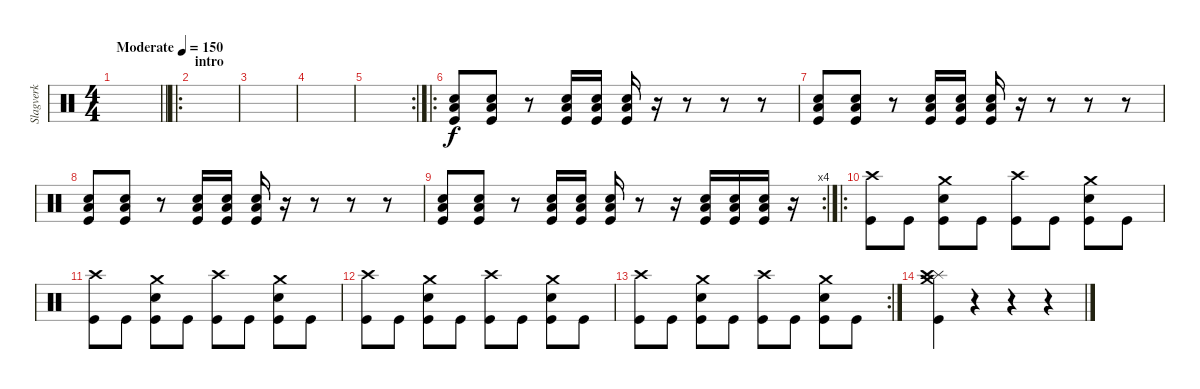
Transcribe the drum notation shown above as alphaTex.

\track ("Slagverk" "Slagverk") {instrument percussion}
\staff {score}
\articulation defaults
\ts (4 4)
\tempo (150 "Moderate")
\clef neutral
\barLineRight lightlight
\ks c
|
\ro
\section ("" "intro")
|
|
|
\rc 2
|
\ro
("Kick (hit)" "Snare (hit) 2" "Low Floor Tom (hit)").8 ("Kick (hit)" "Snare (hit) 2" "Low Floor Tom (hit)").8 r.8 ("Kick (hit)" "Snare (hit) 2" "Low Floor Tom (hit)").16 ("Kick (hit)" "Snare (hit) 2" "Low Floor Tom (hit)").16 ("Kick (hit)" "Snare (hit) 2" "Low Floor Tom (hit)").16 r.16 r.8 r.8 r.8 |
("Kick (hit)" "Snare (hit) 2" "Low Floor Tom (hit)").8 ("Kick (hit)" "Snare (hit) 2" "Low Floor Tom (hit)").8 r.8 ("Kick (hit)" "Snare (hit) 2" "Low Floor Tom (hit)").16 ("Kick (hit)" "Snare (hit) 2" "Low Floor Tom (hit)").16 ("Kick (hit)" "Snare (hit) 2" "Low Floor Tom (hit)").16 r.16 r.8 r.8 r.8 |
("Kick (hit)" "Snare (hit) 2" "Low Floor Tom (hit)").8 ("Kick (hit)" "Snare (hit) 2" "Low Floor Tom (hit)").8 r.8 ("Kick (hit)" "Snare (hit) 2" "Low Floor Tom (hit)").16 ("Kick (hit)" "Snare (hit) 2" "Low Floor Tom (hit)").16 ("Kick (hit)" "Snare (hit) 2" "Low Floor Tom (hit)").16 r.16 r.8 r.8 r.8 |
\rc 4
("Kick (hit)" "Snare (hit) 2" "Low Floor Tom (hit)").8 ("Kick (hit)" "Snare (hit) 2" "Low Floor Tom (hit)").8 r.8 ("Kick (hit)" "Snare (hit) 2" "Low Floor Tom (hit)").16 ("Kick (hit)" "Snare (hit) 2" "Low Floor Tom (hit)").16 ("Kick (hit)" "Snare (hit) 2" "Low Floor Tom (hit)").16 r.8 r.16 ("Kick (hit)" "Snare (hit) 2" "Low Floor Tom (hit)").16 ("Kick (hit)" "Snare (hit) 2" "Low Floor Tom (hit)").16 ("Kick (hit)" "Snare (hit) 2" "Low Floor Tom (hit)").16 r.16 |
\ro
("Kick (hit)" "Crash high (hit)").8 "Kick (hit)".8 ("Kick (hit)" "Snare (hit) 2" "Crash medium (hit)").8 "Kick (hit)".8 ("Kick (hit)" "Crash high (hit)").8 "Kick (hit)".8 ("Kick (hit)" "Snare (hit) 2" "Crash medium (hit)").8 "Kick (hit)".8 |
("Kick (hit)" "Crash high (hit)").8 "Kick (hit)".8 ("Kick (hit)" "Snare (hit) 2" "Crash medium (hit)").8 "Kick (hit)".8 ("Kick (hit)" "Crash high (hit)").8 "Kick (hit)".8 ("Kick (hit)" "Snare (hit) 2" "Crash medium (hit)").8 "Kick (hit)".8 |
("Kick (hit)" "Crash high (hit)").8 "Kick (hit)".8 ("Kick (hit)" "Snare (hit) 2" "Crash medium (hit)").8 "Kick (hit)".8 ("Kick (hit)" "Crash high (hit)").8 "Kick (hit)".8 ("Kick (hit)" "Snare (hit) 2" "Crash medium (hit)").8 "Kick (hit)".8 |
\rc 2
("Kick (hit)" "Crash high (hit)").8 "Kick (hit)".8 ("Kick (hit)" "Snare (hit) 2" "Crash medium (hit)").8 "Kick (hit)".8 ("Kick (hit)" "Crash high (hit)").8 "Kick (hit)".8 ("Kick (hit)" "Snare (hit) 2" "Crash medium (hit)").8 "Kick (hit)".8 |
("Kick (hit)" "Crash medium (hit)" "Splash (hit)" "Crash high (hit)").4 r.4 r.4 r.4
